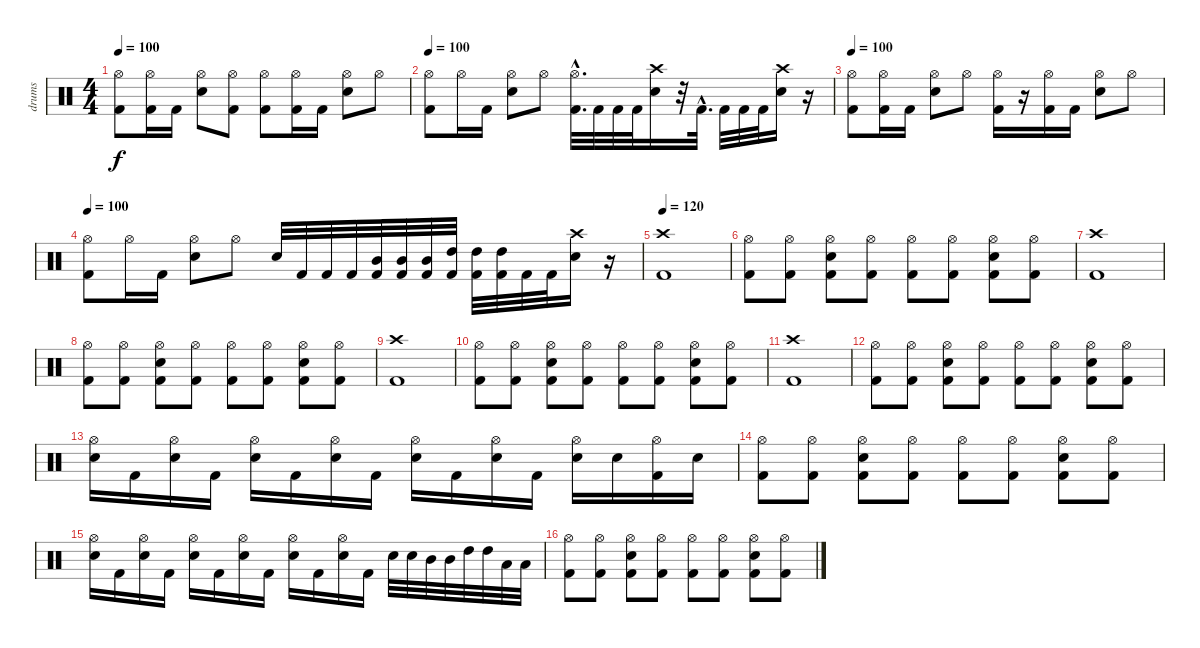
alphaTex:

\track ("drums" "drums") {instrument percussion}
\staff {score}
\articulation defaults
\ts (4 4)
\tempo 100
\clef neutral
\ks c
("Kick (hit) 2" "Hi-Hat (open)").8{dy f} ("Kick (hit) 2" "Hi-Hat (open)").16 "Kick (hit) 2".16 ("Electric Snare (hit)" "Hi-Hat (open)").8 ("Kick (hit) 2" "Hi-Hat (open)").8 ("Kick (hit) 2" "Hi-Hat (open)").8 ("Kick (hit) 2" "Hi-Hat (open)").16 "Kick (hit) 2".16 ("Electric Snare (hit)" "Hi-Hat (open)").8 "Hi-Hat (open)".8 |
\tempo 100
("Kick (hit) 2" "Hi-Hat (open)").8 "Hi-Hat (open)".16 "Kick (hit) 2".16 ("Electric Snare (hit)" "Hi-Hat (open)").8 "Hi-Hat (open)".8 ("Kick (hit) 2"{hac} "Hi-Hat (open)"{hac}).32{d} "Kick (hit) 2".32 "Kick (hit) 2".32 "Kick (hit) 2".32 ("Electric Snare (hit)" "Crash high (hit)").16 r.32 "Kick (hit) 2"{hac}.32{d} "Kick (hit) 2".32 "Kick (hit) 2".32 "Kick (hit) 2".32 ("Electric Snare (hit)" "Crash high (hit)").16 r.16 |
\tempo 100
("Kick (hit) 2" "Hi-Hat (open)").8 ("Kick (hit) 2" "Hi-Hat (open)").16 "Kick (hit) 2".16 ("Electric Snare (hit)" "Hi-Hat (open)").8 "Hi-Hat (open)".8 ("Kick (hit) 2" "Hi-Hat (open)").16 r.16 ("Kick (hit) 2" "Hi-Hat (open)").16 "Kick (hit) 2".16 ("Electric Snare (hit)" "Hi-Hat (open)").8 "Hi-Hat (open)".8 |
\tempo 100
("Kick (hit) 2" "Hi-Hat (open)").8 "Hi-Hat (open)".16 "Kick (hit) 2".16 ("Electric Snare (hit)" "Hi-Hat (open)").8 "Hi-Hat (open)".8 "Electric Snare (hit)".32 "Kick (hit) 2".32 "Kick (hit) 2".32 "Kick (hit) 2".32 ("Kick (hit) 2" "Mid Tom (hit)").32 ("Kick (hit) 2" "Mid Tom (hit)").32 ("Kick (hit) 2" "Mid Tom (hit)").32 ("Kick (hit) 2" "High Tom (hit)").32 ("Kick (hit) 2" "High Tom (hit)").32 ("Kick (hit) 2" "High Tom (hit)").32 "Kick (hit) 2".32 "Kick (hit) 2".32 ("Electric Snare (hit)" "Crash high (hit)").16 r.16 |
\tempo 120
("Kick (hit) 2" "Crash high (hit)").1 |
("Kick (hit) 2" "Hi-Hat (open)").8 ("Kick (hit) 2" "Hi-Hat (open)").8 ("Kick (hit) 2" "Electric Snare (hit)" "Hi-Hat (open)").8 ("Kick (hit) 2" "Hi-Hat (open)").8 ("Kick (hit) 2" "Hi-Hat (open)").8 ("Kick (hit) 2" "Hi-Hat (open)").8 ("Kick (hit) 2" "Electric Snare (hit)" "Hi-Hat (open)").8 ("Kick (hit) 2" "Hi-Hat (open)").8 |
("Kick (hit) 2" "Crash high (hit)").1 |
("Kick (hit) 2" "Hi-Hat (open)").8 ("Kick (hit) 2" "Hi-Hat (open)").8 ("Kick (hit) 2" "Electric Snare (hit)" "Hi-Hat (open)").8 ("Kick (hit) 2" "Hi-Hat (open)").8 ("Kick (hit) 2" "Hi-Hat (open)").8 ("Kick (hit) 2" "Hi-Hat (open)").8 ("Kick (hit) 2" "Electric Snare (hit)" "Hi-Hat (open)").8 ("Kick (hit) 2" "Hi-Hat (open)").8 |
("Kick (hit) 2" "Crash high (hit)").1 |
("Kick (hit) 2" "Hi-Hat (open)").8 ("Kick (hit) 2" "Hi-Hat (open)").8 ("Kick (hit) 2" "Electric Snare (hit)" "Hi-Hat (open)").8 ("Kick (hit) 2" "Hi-Hat (open)").8 ("Kick (hit) 2" "Hi-Hat (open)").8 ("Kick (hit) 2" "Hi-Hat (open)").8 ("Kick (hit) 2" "Electric Snare (hit)" "Hi-Hat (open)").8 ("Kick (hit) 2" "Hi-Hat (open)").8 |
("Kick (hit) 2" "Crash high (hit)").1 |
("Kick (hit) 2" "Hi-Hat (open)").8 ("Kick (hit) 2" "Hi-Hat (open)").8 ("Kick (hit) 2" "Electric Snare (hit)" "Hi-Hat (open)").8 ("Kick (hit) 2" "Hi-Hat (open)").8 ("Kick (hit) 2" "Hi-Hat (open)").8 ("Kick (hit) 2" "Hi-Hat (open)").8 ("Kick (hit) 2" "Electric Snare (hit)" "Hi-Hat (open)").8 ("Kick (hit) 2" "Hi-Hat (open)").8 |
("Electric Snare (hit)" "Hi-Hat (open)").16 "Kick (hit) 2".16 ("Electric Snare (hit)" "Hi-Hat (open)").16 "Kick (hit) 2".16 ("Electric Snare (hit)" "Hi-Hat (open)").16 "Kick (hit) 2".16 ("Electric Snare (hit)" "Hi-Hat (open)").16 "Kick (hit) 2".16 ("Electric Snare (hit)" "Hi-Hat (open)").16 "Kick (hit) 2".16 ("Electric Snare (hit)" "Hi-Hat (open)").16 "Kick (hit) 2".16 ("Electric Snare (hit)" "Hi-Hat (open)").16 "Electric Snare (hit)".16 ("Kick (hit) 2" "Hi-Hat (open)").16 "Electric Snare (hit)".16 |
("Kick (hit) 2" "Hi-Hat (open)").8 ("Kick (hit) 2" "Hi-Hat (open)").8 ("Kick (hit) 2" "Electric Snare (hit)" "Hi-Hat (open)").8 ("Kick (hit) 2" "Hi-Hat (open)").8 ("Kick (hit) 2" "Hi-Hat (open)").8 ("Kick (hit) 2" "Hi-Hat (open)").8 ("Kick (hit) 2" "Electric Snare (hit)" "Hi-Hat (open)").8 ("Kick (hit) 2" "Hi-Hat (open)").8 |
("Electric Snare (hit)" "Hi-Hat (open)").16 "Kick (hit) 2".16 ("Electric Snare (hit)" "Hi-Hat (open)").16 "Kick (hit) 2".16 ("Electric Snare (hit)" "Hi-Hat (open)").16 "Kick (hit) 2".16 ("Electric Snare (hit)" "Hi-Hat (open)").16 "Kick (hit) 2".16 ("Electric Snare (hit)" "Hi-Hat (open)").16 "Kick (hit) 2".16 ("Electric Snare (hit)" "Hi-Hat (open)").16 "Kick (hit) 2".16 "Electric Snare (hit)".32 "Electric Snare (hit)".32 "Mid Tom (hit)".32 "Mid Tom (hit)".32 "High Tom (hit)".32 "High Tom (hit)".32 "Low Floor Tom (hit)".32 "Low Floor Tom (hit)".32 |
("Kick (hit) 2" "Hi-Hat (open)").8 ("Kick (hit) 2" "Hi-Hat (open)").8 ("Kick (hit) 2" "Electric Snare (hit)" "Hi-Hat (open)").8 ("Kick (hit) 2" "Hi-Hat (open)").8 ("Kick (hit) 2" "Hi-Hat (open)").8 ("Kick (hit) 2" "Hi-Hat (open)").8 ("Kick (hit) 2" "Electric Snare (hit)" "Hi-Hat (open)").8 ("Kick (hit) 2" "Hi-Hat (open)").8
